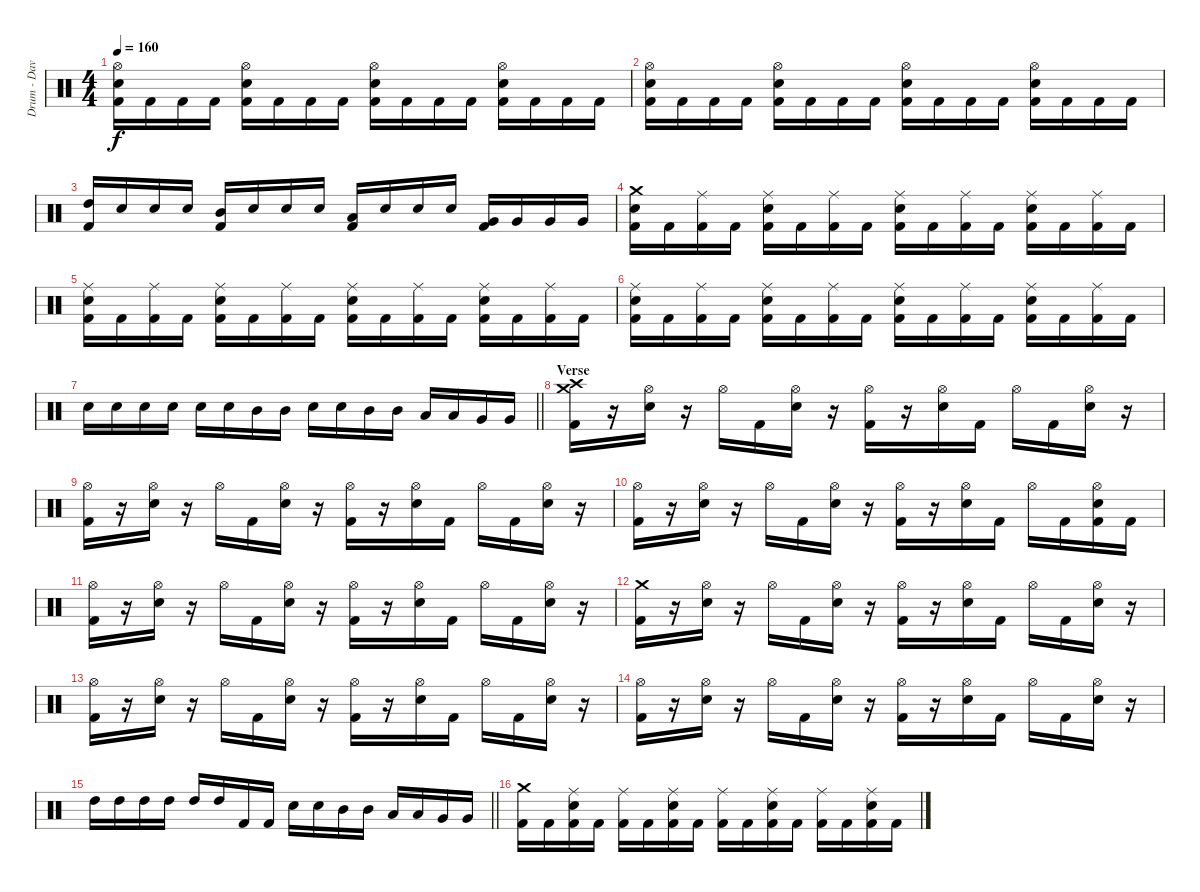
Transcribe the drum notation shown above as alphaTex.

\track ("Drum - Dave Mackintosh" "Drum - Dav") {instrument percussion}
\staff {score}
\articulation defaults
\ts (4 4)
\tempo 160
\clef neutral
\ks c
("Hi-Hat (open)" "Electric Snare (hit)" "Kick (hit) 2").16{dy f} "Kick (hit) 2".16 "Kick (hit) 2".16 "Kick (hit) 2".16 ("Hi-Hat (open)" "Electric Snare (hit)" "Kick (hit) 2").16 "Kick (hit) 2".16 "Kick (hit) 2".16 "Kick (hit) 2".16 ("Hi-Hat (open)" "Electric Snare (hit)" "Kick (hit) 2").16 "Kick (hit) 2".16 "Kick (hit) 2".16 "Kick (hit) 2".16 ("Hi-Hat (open)" "Electric Snare (hit)" "Kick (hit) 2").16 "Kick (hit) 2".16 "Kick (hit) 2".16 "Kick (hit) 2".16 |
("Hi-Hat (open)" "Electric Snare (hit)" "Kick (hit) 2").16 "Kick (hit) 2".16 "Kick (hit) 2".16 "Kick (hit) 2".16 ("Hi-Hat (open)" "Electric Snare (hit)" "Kick (hit) 2").16 "Kick (hit) 2".16 "Kick (hit) 2".16 "Kick (hit) 2".16 ("Hi-Hat (open)" "Electric Snare (hit)" "Kick (hit) 2").16 "Kick (hit) 2".16 "Kick (hit) 2".16 "Kick (hit) 2".16 ("Hi-Hat (open)" "Electric Snare (hit)" "Kick (hit) 2").16 "Kick (hit) 2".16 "Kick (hit) 2".16 "Kick (hit) 2".16 |
("High Tom (hit)" "Kick (hit) 2").16 "Electric Snare (hit)".16 "Electric Snare (hit)".16 "Electric Snare (hit)".16 ("Mid Tom (hit)" "Kick (hit) 2").16 "Electric Snare (hit)".16 "Electric Snare (hit)".16 "Electric Snare (hit)".16 ("Low Tom (hit)" "Kick (hit) 2").16 "Electric Snare (hit)".16 "Electric Snare (hit)".16 "Electric Snare (hit)".16 ("Very Low Tom (hit)" "Kick (hit) 2").16 "Very Low Tom (hit)".16 "Very Low Tom (hit)".16 "Very Low Tom (hit)".16 |
("Crash medium (hit)" "Electric Snare (hit)" "Kick (hit) 2").16 "Kick (hit) 2".16 ("Ride (middle)" "Kick (hit) 2").16 "Kick (hit) 2".16 ("Ride (middle)" "Electric Snare (hit)" "Kick (hit) 2").16 "Kick (hit) 2".16 ("Ride (middle)" "Kick (hit) 2").16 "Kick (hit) 2".16 ("Ride (middle)" "Electric Snare (hit)" "Kick (hit) 2").16 "Kick (hit) 2".16 ("Ride (middle)" "Kick (hit) 2").16 "Kick (hit) 2".16 ("Ride (middle)" "Electric Snare (hit)" "Kick (hit) 2").16 "Kick (hit) 2".16 ("Ride (middle)" "Kick (hit) 2").16 "Kick (hit) 2".16 |
("Ride (middle)" "Electric Snare (hit)" "Kick (hit) 2").16 "Kick (hit) 2".16 ("Ride (middle)" "Kick (hit) 2").16 "Kick (hit) 2".16 ("Ride (middle)" "Electric Snare (hit)" "Kick (hit) 2").16 "Kick (hit) 2".16 ("Ride (middle)" "Kick (hit) 2").16 "Kick (hit) 2".16 ("Ride (middle)" "Electric Snare (hit)" "Kick (hit) 2").16 "Kick (hit) 2".16 ("Ride (middle)" "Kick (hit) 2").16 "Kick (hit) 2".16 ("Ride (middle)" "Electric Snare (hit)" "Kick (hit) 2").16 "Kick (hit) 2".16 ("Ride (middle)" "Kick (hit) 2").16 "Kick (hit) 2".16 |
("Ride (middle)" "Electric Snare (hit)" "Kick (hit) 2").16 "Kick (hit) 2".16 ("Ride (middle)" "Kick (hit) 2").16 "Kick (hit) 2".16 ("Ride (middle)" "Electric Snare (hit)" "Kick (hit) 2").16 "Kick (hit) 2".16 ("Ride (middle)" "Kick (hit) 2").16 "Kick (hit) 2".16 ("Ride (middle)" "Electric Snare (hit)" "Kick (hit) 2").16 "Kick (hit) 2".16 ("Ride (middle)" "Kick (hit) 2").16 "Kick (hit) 2".16 ("Ride (middle)" "Electric Snare (hit)" "Kick (hit) 2").16 "Kick (hit) 2".16 ("Ride (middle)" "Kick (hit) 2").16 "Kick (hit) 2".16 |
\barLineRight lightlight "Electric Snare (hit)".16 "Electric Snare (hit)".16 "Electric Snare (hit)".16 "Electric Snare (hit)".16 "Electric Snare (hit)".16 "Electric Snare (hit)".16 "Mid Tom (hit)".16 "Mid Tom (hit)".16 "Electric Snare (hit)".16 "Electric Snare (hit)".16 "Mid Tom (hit)".16 "Mid Tom (hit)".16 "Low Tom (hit)".16 "Low Tom (hit)".16 "Very Low Tom (hit)".16 "Very Low Tom (hit)".16
|
\section ("" "Verse")
("Crash medium (hit)" "Crash high (hit)" "Kick (hit) 2").16 r.16 ("Hi-Hat (open)" "Electric Snare (hit)").16 r.16 "Hi-Hat (open)".16 "Kick (hit) 2".16 ("Hi-Hat (open)" "Electric Snare (hit)").16 r.16 ("Hi-Hat (open)" "Kick (hit) 2").16 r.16 ("Hi-Hat (open)" "Electric Snare (hit)").16 "Kick (hit) 2".16 "Hi-Hat (open)".16 "Kick (hit) 2".16 ("Hi-Hat (open)" "Electric Snare (hit)").16 r.16 |
("Hi-Hat (open)" "Kick (hit) 2").16 r.16 ("Hi-Hat (open)" "Electric Snare (hit)").16 r.16 "Hi-Hat (open)".16 "Kick (hit) 2".16 ("Hi-Hat (open)" "Electric Snare (hit)").16 r.16 ("Hi-Hat (open)" "Kick (hit) 2").16 r.16 ("Hi-Hat (open)" "Electric Snare (hit)").16 "Kick (hit) 2".16 "Hi-Hat (open)".16 "Kick (hit) 2".16 ("Hi-Hat (open)" "Electric Snare (hit)").16 r.16 |
("Hi-Hat (open)" "Kick (hit) 2").16 r.16 ("Hi-Hat (open)" "Electric Snare (hit)").16 r.16 "Hi-Hat (open)".16 "Kick (hit) 2".16 ("Hi-Hat (open)" "Electric Snare (hit)").16 r.16 ("Hi-Hat (open)" "Kick (hit) 2").16 r.16 ("Hi-Hat (open)" "Electric Snare (hit)").16 "Kick (hit) 2".16 "Hi-Hat (open)".16 "Kick (hit) 2".16 ("Hi-Hat (open)" "Electric Snare (hit)" "Kick (hit) 2").16 "Kick (hit) 2".16 |
("Hi-Hat (open)" "Kick (hit) 2").16 r.16 ("Hi-Hat (open)" "Electric Snare (hit)").16 r.16 "Hi-Hat (open)".16 "Kick (hit) 2".16 ("Hi-Hat (open)" "Electric Snare (hit)").16 r.16 ("Hi-Hat (open)" "Kick (hit) 2").16 r.16 ("Hi-Hat (open)" "Electric Snare (hit)").16 "Kick (hit) 2".16 "Hi-Hat (open)".16 "Kick (hit) 2".16 ("Hi-Hat (open)" "Electric Snare (hit)").16 r.16 |
("Crash medium (hit)" "Kick (hit) 2").16 r.16 ("Hi-Hat (open)" "Electric Snare (hit)").16 r.16 "Hi-Hat (open)".16 "Kick (hit) 2".16 ("Hi-Hat (open)" "Electric Snare (hit)").16 r.16 ("Hi-Hat (open)" "Kick (hit) 2").16 r.16 ("Hi-Hat (open)" "Electric Snare (hit)").16 "Kick (hit) 2".16 "Hi-Hat (open)".16 "Kick (hit) 2".16 ("Hi-Hat (open)" "Electric Snare (hit)").16 r.16 |
("Hi-Hat (open)" "Kick (hit) 2").16 r.16 ("Hi-Hat (open)" "Electric Snare (hit)").16 r.16 "Hi-Hat (open)".16 "Kick (hit) 2".16 ("Hi-Hat (open)" "Electric Snare (hit)").16 r.16 ("Hi-Hat (open)" "Kick (hit) 2").16 r.16 ("Hi-Hat (open)" "Electric Snare (hit)").16 "Kick (hit) 2".16 "Hi-Hat (open)".16 "Kick (hit) 2".16 ("Hi-Hat (open)" "Electric Snare (hit)").16 r.16 |
("Hi-Hat (open)" "Kick (hit) 2").16 r.16 ("Hi-Hat (open)" "Electric Snare (hit)").16 r.16 "Hi-Hat (open)".16 "Kick (hit) 2".16 ("Hi-Hat (open)" "Electric Snare (hit)").16 r.16 ("Hi-Hat (open)" "Kick (hit) 2").16 r.16 ("Hi-Hat (open)" "Electric Snare (hit)").16 "Kick (hit) 2".16 "Hi-Hat (open)".16 "Kick (hit) 2".16 ("Hi-Hat (open)" "Electric Snare (hit)").16 r.16 |
\barLineRight lightlight "High Tom (hit)".16 "High Tom (hit)".16 "High Tom (hit)".16 "High Tom (hit)".16 "High Tom (hit)".16 "High Tom (hit)".16 "Kick (hit) 2".16 "Kick (hit) 2".16 "Electric Snare (hit)".16 "Electric Snare (hit)".16 "Mid Tom (hit)".16 "Mid Tom (hit)".16 "Low Tom (hit)".16 "Low Tom (hit)".16 "Very Low Tom (hit)".16 "Very Low Tom (hit)".16
|
\section ("" "")
("Crash medium (hit)" "Kick (hit) 2").16 "Kick (hit) 2".16 ("Ride (middle)" "Electric Snare (hit)" "Kick (hit) 2").16 "Kick (hit) 2".16 ("Ride (middle)" "Kick (hit) 2").16 "Kick (hit) 2".16 ("Ride (middle)" "Electric Snare (hit)" "Kick (hit) 2").16 "Kick (hit) 2".16 ("Ride (middle)" "Kick (hit) 2").16 "Kick (hit) 2".16 ("Ride (middle)" "Electric Snare (hit)" "Kick (hit) 2").16 "Kick (hit) 2".16 ("Ride (middle)" "Kick (hit) 2").16 "Kick (hit) 2".16 ("Ride (middle)" "Electric Snare (hit)" "Kick (hit) 2").16 "Kick (hit) 2".16
